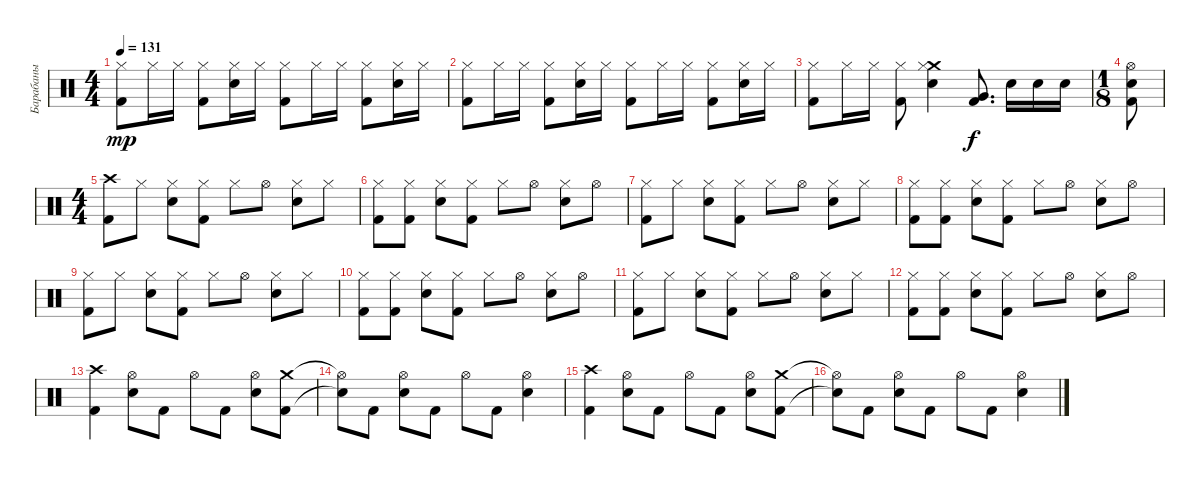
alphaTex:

\track ("Барабаны" "Барабаны") {instrument percussion}
\staff {score}
\articulation defaults
\ts (4 4)
\tempo 131
\clef neutral
\ks c
("Hi-Hat (closed)" "Kick (hit) 2").8{dy mp} "Hi-Hat (closed)".16 "Hi-Hat (closed)".16 ("Hi-Hat (closed)" "Kick (hit) 2").8 ("Snare (hit) 2" "Hi-Hat (closed)").16 "Hi-Hat (closed)".16 ("Hi-Hat (closed)" "Kick (hit) 2").8 "Hi-Hat (closed)".16 "Hi-Hat (closed)".16 ("Hi-Hat (closed)" "Kick (hit) 2").8 ("Snare (hit) 2" "Hi-Hat (closed)").16 "Hi-Hat (closed)".16 |
("Hi-Hat (closed)" "Kick (hit) 2").8 "Hi-Hat (closed)".16 "Hi-Hat (closed)".16 ("Hi-Hat (closed)" "Kick (hit) 2").8 ("Snare (hit) 2" "Hi-Hat (closed)").16 "Hi-Hat (closed)".16 ("Hi-Hat (closed)" "Kick (hit) 2").8 "Hi-Hat (closed)".16 "Hi-Hat (closed)".16 ("Hi-Hat (closed)" "Kick (hit) 2").8 ("Snare (hit) 2" "Hi-Hat (closed)").16 "Hi-Hat (closed)".16 |
("Hi-Hat (closed)" "Kick (hit) 2").8 "Hi-Hat (closed)".16 "Hi-Hat (closed)".16 ("Hi-Hat (closed)" "Kick (hit) 2").8 ("Crash medium (hit)" "Snare (hit) 2" "Hi-Hat (closed)").4 ("Very Low Tom (hit)" "Kick (hit) 2").8{d dy f} "Electric Snare (hit)".16 "Electric Snare (hit)".16 "Electric Snare (hit)".16 |
\ts (1 8)
("Hi-Hat (open)" "Kick (hit) 2" "Electric Snare (hit)").8 |
\ts (4 4)
("Crash high (hit)" "Kick (hit) 2").8 "Hi-Hat (closed)".8 ("Hi-Hat (closed)" "Snare (hit) 2").8 ("Hi-Hat (closed)" "Kick (hit) 2").8 "Hi-Hat (closed)".8 "Hi-Hat (open)".8 ("Hi-Hat (closed)" "Snare (hit) 2").8 "Hi-Hat (closed)".8 |
("Hi-Hat (closed)" "Kick (hit) 2").8 ("Hi-Hat (closed)" "Kick (hit) 2").8 ("Hi-Hat (closed)" "Snare (hit) 2").8 ("Hi-Hat (closed)" "Kick (hit) 2").8 "Hi-Hat (closed)".8 "Hi-Hat (open)".8 ("Hi-Hat (closed)" "Snare (hit) 2").8 "Hi-Hat (open)".8 |
("Hi-Hat (closed)" "Kick (hit) 2").8 "Hi-Hat (closed)".8 ("Hi-Hat (closed)" "Snare (hit) 2").8 ("Hi-Hat (closed)" "Kick (hit) 2").8 "Hi-Hat (closed)".8 "Hi-Hat (open)".8 ("Hi-Hat (closed)" "Snare (hit) 2").8 "Hi-Hat (closed)".8 |
("Hi-Hat (closed)" "Kick (hit) 2").8 ("Hi-Hat (closed)" "Kick (hit) 2").8 ("Hi-Hat (closed)" "Snare (hit) 2").8 ("Hi-Hat (closed)" "Kick (hit) 2").8 "Hi-Hat (closed)".8 "Hi-Hat (open)".8 ("Hi-Hat (closed)" "Snare (hit) 2").8 "Hi-Hat (open)".8 |
("Hi-Hat (closed)" "Kick (hit) 2").8 "Hi-Hat (closed)".8 ("Hi-Hat (closed)" "Snare (hit) 2").8 ("Hi-Hat (closed)" "Kick (hit) 2").8 "Hi-Hat (closed)".8 "Hi-Hat (open)".8 ("Hi-Hat (closed)" "Snare (hit) 2").8 "Hi-Hat (closed)".8 |
("Hi-Hat (closed)" "Kick (hit) 2").8 ("Hi-Hat (closed)" "Kick (hit) 2").8 ("Hi-Hat (closed)" "Snare (hit) 2").8 ("Hi-Hat (closed)" "Kick (hit) 2").8 "Hi-Hat (closed)".8 "Hi-Hat (open)".8 ("Hi-Hat (closed)" "Snare (hit) 2").8 "Hi-Hat (open)".8 |
("Hi-Hat (closed)" "Kick (hit) 2").8 "Hi-Hat (closed)".8 ("Hi-Hat (closed)" "Snare (hit) 2").8 ("Hi-Hat (closed)" "Kick (hit) 2").8 "Hi-Hat (closed)".8 "Hi-Hat (open)".8 ("Hi-Hat (closed)" "Snare (hit) 2").8 "Hi-Hat (closed)".8 |
("Hi-Hat (closed)" "Kick (hit) 2").8 ("Hi-Hat (closed)" "Kick (hit) 2").8 ("Hi-Hat (closed)" "Snare (hit) 2").8 ("Hi-Hat (closed)" "Kick (hit) 2").8 "Hi-Hat (closed)".8 "Hi-Hat (open)".8 ("Hi-Hat (closed)" "Snare (hit) 2").8 "Hi-Hat (open)".8 |
("Crash high (hit)" "Kick (hit) 2").4 ("Hi-Hat (open)" "Snare (hit) 2").8 "Kick (hit) 2".8 "Hi-Hat (open)".8 "Kick (hit) 2".8 ("Hi-Hat (open)" "Snare (hit) 2").8 ("Crash medium (hit)" "Kick (hit) 2").8 |
("Hi-Hat (open)"{t} "Snare (hit)"{t}).8 "Kick (hit) 2".8 ("Snare (hit) 2" "Hi-Hat (open)").8 "Kick (hit) 2".8 "Hi-Hat (open)".8 "Kick (hit) 2".8 ("Hi-Hat (open)" "Snare (hit) 2").4 |
("Crash high (hit)" "Kick (hit) 2").4 ("Hi-Hat (open)" "Snare (hit) 2").8 "Kick (hit) 2".8 "Hi-Hat (open)".8 "Kick (hit) 2".8 ("Hi-Hat (open)" "Snare (hit) 2").8 ("Crash medium (hit)" "Kick (hit) 2").8 |
("Hi-Hat (open)"{t} "Snare (hit)"{t}).8 "Kick (hit) 2".8 ("Snare (hit) 2" "Hi-Hat (open)").8 "Kick (hit) 2".8 "Hi-Hat (open)".8 "Kick (hit) 2".8 ("Hi-Hat (open)" "Snare (hit) 2").4
